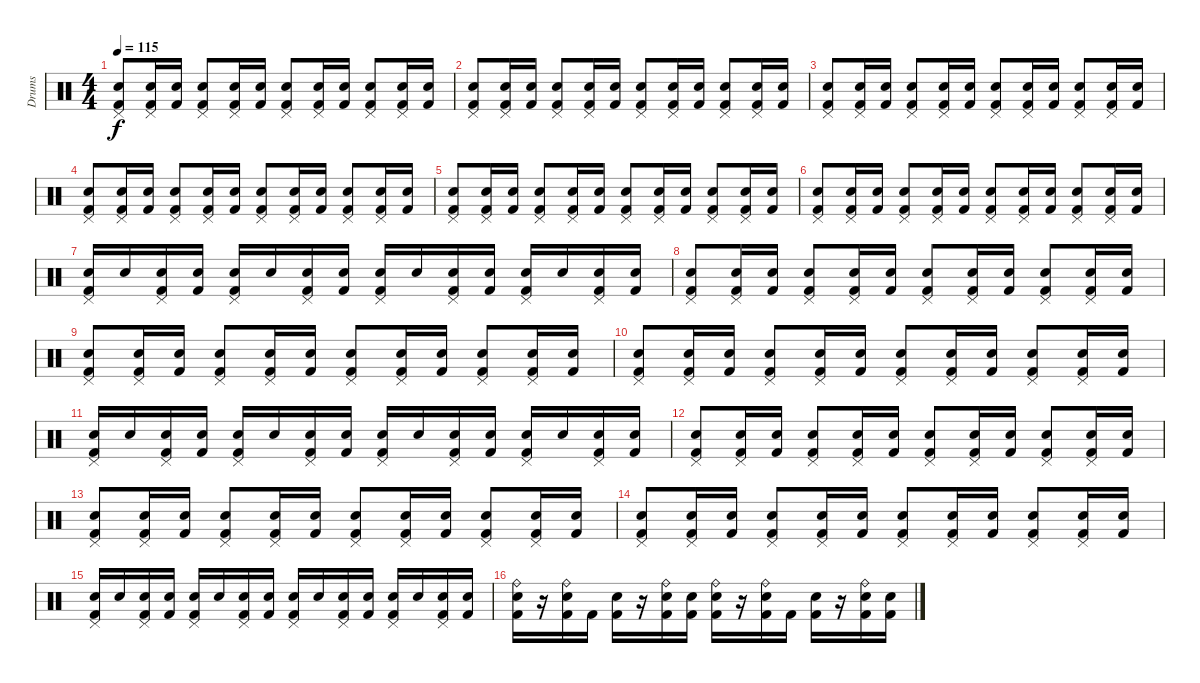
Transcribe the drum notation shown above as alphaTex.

\track ("Drums" "Drums") {instrument percussion}
\staff {score}
\articulation defaults
\ts (4 4)
\tempo 115
\clef neutral
\ks c
("Pedal Hi-Hat (hit)" "Kick (hit) 2" "Snare (hit) 2").8{dy f} ("Pedal Hi-Hat (hit)" "Kick (hit) 2" "Snare (hit) 2").16 ("Kick (hit) 2" "Snare (hit) 2").16 ("Pedal Hi-Hat (hit)" "Electric Snare (hit)" "Kick (hit) 2").8 ("Pedal Hi-Hat (hit)" "Kick (hit) 2" "Snare (hit) 2").16 ("Kick (hit) 2" "Snare (hit) 2").16 ("Pedal Hi-Hat (hit)" "Kick (hit) 2" "Snare (hit) 2").8 ("Pedal Hi-Hat (hit)" "Kick (hit) 2" "Snare (hit) 2").16 ("Kick (hit) 2" "Snare (hit) 2").16 ("Pedal Hi-Hat (hit)" "Electric Snare (hit)" "Kick (hit) 2").8 ("Pedal Hi-Hat (hit)" "Kick (hit) 2" "Snare (hit) 2").16 ("Kick (hit) 2" "Snare (hit) 2").16 |
("Pedal Hi-Hat (hit)" "Kick (hit) 2" "Snare (hit) 2").8 ("Pedal Hi-Hat (hit)" "Kick (hit) 2" "Snare (hit) 2").16 ("Kick (hit) 2" "Snare (hit) 2").16 ("Pedal Hi-Hat (hit)" "Electric Snare (hit)" "Kick (hit) 2").8 ("Pedal Hi-Hat (hit)" "Kick (hit) 2" "Snare (hit) 2").16 ("Kick (hit) 2" "Snare (hit) 2").16 ("Pedal Hi-Hat (hit)" "Kick (hit) 2" "Snare (hit) 2").8 ("Pedal Hi-Hat (hit)" "Kick (hit) 2" "Snare (hit) 2").16 ("Kick (hit) 2" "Snare (hit) 2").16 ("Pedal Hi-Hat (hit)" "Electric Snare (hit)" "Kick (hit) 2").8 ("Pedal Hi-Hat (hit)" "Kick (hit) 2" "Snare (hit) 2").16 ("Kick (hit) 2" "Snare (hit) 2").16 |
("Pedal Hi-Hat (hit)" "Kick (hit) 2" "Snare (hit) 2").8 ("Pedal Hi-Hat (hit)" "Kick (hit) 2" "Snare (hit) 2").16 ("Kick (hit) 2" "Snare (hit) 2").16 ("Pedal Hi-Hat (hit)" "Electric Snare (hit)" "Kick (hit) 2").8 ("Pedal Hi-Hat (hit)" "Kick (hit) 2" "Snare (hit) 2").16 ("Kick (hit) 2" "Snare (hit) 2").16 ("Pedal Hi-Hat (hit)" "Kick (hit) 2" "Snare (hit) 2").8 ("Pedal Hi-Hat (hit)" "Kick (hit) 2" "Snare (hit) 2").16 ("Kick (hit) 2" "Snare (hit) 2").16 ("Pedal Hi-Hat (hit)" "Electric Snare (hit)" "Kick (hit) 2").8 ("Pedal Hi-Hat (hit)" "Kick (hit) 2" "Snare (hit) 2").16 ("Kick (hit) 2" "Snare (hit) 2").16 |
("Pedal Hi-Hat (hit)" "Kick (hit) 2" "Snare (hit) 2").8 ("Pedal Hi-Hat (hit)" "Kick (hit) 2" "Snare (hit) 2").16 ("Kick (hit) 2" "Snare (hit) 2").16 ("Pedal Hi-Hat (hit)" "Electric Snare (hit)" "Kick (hit) 2").8 ("Pedal Hi-Hat (hit)" "Kick (hit) 2" "Snare (hit) 2").16 ("Kick (hit) 2" "Snare (hit) 2").16 ("Pedal Hi-Hat (hit)" "Kick (hit) 2" "Snare (hit) 2").8 ("Pedal Hi-Hat (hit)" "Kick (hit) 2" "Snare (hit) 2").16 ("Kick (hit) 2" "Snare (hit) 2").16 ("Pedal Hi-Hat (hit)" "Electric Snare (hit)" "Kick (hit) 2").8 ("Pedal Hi-Hat (hit)" "Kick (hit) 2" "Snare (hit) 2").16 ("Kick (hit) 2" "Snare (hit) 2").16 |
("Pedal Hi-Hat (hit)" "Kick (hit) 2" "Snare (hit) 2").8 ("Pedal Hi-Hat (hit)" "Kick (hit) 2" "Snare (hit) 2").16 ("Kick (hit) 2" "Snare (hit) 2").16 ("Pedal Hi-Hat (hit)" "Electric Snare (hit)" "Kick (hit) 2").8 ("Pedal Hi-Hat (hit)" "Kick (hit) 2" "Snare (hit) 2").16 ("Kick (hit) 2" "Snare (hit) 2").16 ("Pedal Hi-Hat (hit)" "Kick (hit) 2" "Snare (hit) 2").8 ("Pedal Hi-Hat (hit)" "Kick (hit) 2" "Snare (hit) 2").16 ("Kick (hit) 2" "Snare (hit) 2").16 ("Pedal Hi-Hat (hit)" "Electric Snare (hit)" "Kick (hit) 2").8 ("Pedal Hi-Hat (hit)" "Kick (hit) 2" "Snare (hit) 2").16 ("Kick (hit) 2" "Snare (hit) 2").16 |
("Pedal Hi-Hat (hit)" "Kick (hit) 2" "Snare (hit) 2").8 ("Pedal Hi-Hat (hit)" "Kick (hit) 2" "Snare (hit) 2").16 ("Kick (hit) 2" "Snare (hit) 2").16 ("Pedal Hi-Hat (hit)" "Electric Snare (hit)" "Kick (hit) 2").8 ("Pedal Hi-Hat (hit)" "Kick (hit) 2" "Snare (hit) 2").16 ("Kick (hit) 2" "Snare (hit) 2").16 ("Pedal Hi-Hat (hit)" "Kick (hit) 2" "Snare (hit) 2").8 ("Pedal Hi-Hat (hit)" "Kick (hit) 2" "Snare (hit) 2").16 ("Kick (hit) 2" "Snare (hit) 2").16 ("Pedal Hi-Hat (hit)" "Electric Snare (hit)" "Kick (hit) 2").8 ("Pedal Hi-Hat (hit)" "Kick (hit) 2" "Snare (hit) 2").16 ("Kick (hit) 2" "Snare (hit) 2").16 |
("Pedal Hi-Hat (hit)" "Kick (hit) 2" "Snare (hit) 2").16 "Snare (hit) 2".16 ("Pedal Hi-Hat (hit)" "Kick (hit) 2" "Snare (hit) 2").16 ("Kick (hit) 2" "Snare (hit) 2").16 ("Pedal Hi-Hat (hit)" "Kick (hit) 2" "Snare (hit) 2").16 "Snare (hit) 2".16 ("Pedal Hi-Hat (hit)" "Kick (hit) 2" "Snare (hit) 2").16 ("Kick (hit) 2" "Snare (hit) 2").16 ("Pedal Hi-Hat (hit)" "Kick (hit) 2" "Electric Snare (hit)").16 "Electric Snare (hit)".16 ("Pedal Hi-Hat (hit)" "Kick (hit) 2" "Electric Snare (hit)").16 ("Kick (hit) 2" "Electric Snare (hit)").16 ("Pedal Hi-Hat (hit)" "Kick (hit) 2" "Electric Snare (hit)").16 "Electric Snare (hit)".16 ("Pedal Hi-Hat (hit)" "Kick (hit) 2" "Electric Snare (hit)").16 ("Kick (hit) 2" "Electric Snare (hit)").16 |
("Pedal Hi-Hat (hit)" "Kick (hit) 2" "Snare (hit) 2").8 ("Pedal Hi-Hat (hit)" "Kick (hit) 2" "Snare (hit) 2").16 ("Kick (hit) 2" "Snare (hit) 2").16 ("Pedal Hi-Hat (hit)" "Electric Snare (hit)" "Kick (hit) 2").8 ("Pedal Hi-Hat (hit)" "Kick (hit) 2" "Snare (hit) 2").16 ("Kick (hit) 2" "Snare (hit) 2").16 ("Pedal Hi-Hat (hit)" "Kick (hit) 2" "Snare (hit) 2").8 ("Pedal Hi-Hat (hit)" "Kick (hit) 2" "Snare (hit) 2").16 ("Kick (hit) 2" "Snare (hit) 2").16 ("Pedal Hi-Hat (hit)" "Electric Snare (hit)" "Kick (hit) 2").8 ("Pedal Hi-Hat (hit)" "Kick (hit) 2" "Snare (hit) 2").16 ("Kick (hit) 2" "Snare (hit) 2").16 |
("Pedal Hi-Hat (hit)" "Kick (hit) 2" "Snare (hit) 2").8 ("Pedal Hi-Hat (hit)" "Kick (hit) 2" "Snare (hit) 2").16 ("Kick (hit) 2" "Snare (hit) 2").16 ("Pedal Hi-Hat (hit)" "Electric Snare (hit)" "Kick (hit) 2").8 ("Pedal Hi-Hat (hit)" "Kick (hit) 2" "Snare (hit) 2").16 ("Kick (hit) 2" "Snare (hit) 2").16 ("Pedal Hi-Hat (hit)" "Kick (hit) 2" "Snare (hit) 2").8 ("Pedal Hi-Hat (hit)" "Kick (hit) 2" "Snare (hit) 2").16 ("Kick (hit) 2" "Snare (hit) 2").16 ("Pedal Hi-Hat (hit)" "Electric Snare (hit)" "Kick (hit) 2").8 ("Pedal Hi-Hat (hit)" "Kick (hit) 2" "Snare (hit) 2").16 ("Kick (hit) 2" "Snare (hit) 2").16 |
("Pedal Hi-Hat (hit)" "Kick (hit) 2" "Snare (hit) 2").8 ("Pedal Hi-Hat (hit)" "Kick (hit) 2" "Snare (hit) 2").16 ("Kick (hit) 2" "Snare (hit) 2").16 ("Pedal Hi-Hat (hit)" "Electric Snare (hit)" "Kick (hit) 2").8 ("Pedal Hi-Hat (hit)" "Kick (hit) 2" "Snare (hit) 2").16 ("Kick (hit) 2" "Snare (hit) 2").16 ("Pedal Hi-Hat (hit)" "Kick (hit) 2" "Snare (hit) 2").8 ("Pedal Hi-Hat (hit)" "Kick (hit) 2" "Snare (hit) 2").16 ("Kick (hit) 2" "Snare (hit) 2").16 ("Pedal Hi-Hat (hit)" "Electric Snare (hit)" "Kick (hit) 2").8 ("Pedal Hi-Hat (hit)" "Kick (hit) 2" "Snare (hit) 2").16 ("Kick (hit) 2" "Snare (hit) 2").16 |
("Pedal Hi-Hat (hit)" "Kick (hit) 2" "Snare (hit) 2").16 "Snare (hit) 2".16 ("Pedal Hi-Hat (hit)" "Kick (hit) 2" "Snare (hit) 2").16 ("Kick (hit) 2" "Snare (hit) 2").16 ("Pedal Hi-Hat (hit)" "Kick (hit) 2" "Snare (hit) 2").16 "Snare (hit) 2".16 ("Pedal Hi-Hat (hit)" "Kick (hit) 2" "Snare (hit) 2").16 ("Kick (hit) 2" "Snare (hit) 2").16 ("Pedal Hi-Hat (hit)" "Kick (hit) 2" "Electric Snare (hit)").16 "Electric Snare (hit)".16 ("Pedal Hi-Hat (hit)" "Kick (hit) 2" "Electric Snare (hit)").16 ("Kick (hit) 2" "Electric Snare (hit)").16 ("Pedal Hi-Hat (hit)" "Kick (hit) 2" "Electric Snare (hit)").16 "Electric Snare (hit)".16 ("Pedal Hi-Hat (hit)" "Kick (hit) 2" "Electric Snare (hit)").16 ("Kick (hit) 2" "Electric Snare (hit)").16 |
("Pedal Hi-Hat (hit)" "Kick (hit) 2" "Snare (hit) 2").8 ("Pedal Hi-Hat (hit)" "Kick (hit) 2" "Snare (hit) 2").16 ("Kick (hit) 2" "Snare (hit) 2").16 ("Pedal Hi-Hat (hit)" "Electric Snare (hit)" "Kick (hit) 2").8 ("Pedal Hi-Hat (hit)" "Kick (hit) 2" "Snare (hit) 2").16 ("Kick (hit) 2" "Snare (hit) 2").16 ("Pedal Hi-Hat (hit)" "Kick (hit) 2" "Snare (hit) 2").8 ("Pedal Hi-Hat (hit)" "Kick (hit) 2" "Snare (hit) 2").16 ("Kick (hit) 2" "Snare (hit) 2").16 ("Pedal Hi-Hat (hit)" "Electric Snare (hit)" "Kick (hit) 2").8 ("Pedal Hi-Hat (hit)" "Kick (hit) 2" "Snare (hit) 2").16 ("Kick (hit) 2" "Snare (hit) 2").16 |
("Pedal Hi-Hat (hit)" "Kick (hit) 2" "Snare (hit) 2").8 ("Pedal Hi-Hat (hit)" "Kick (hit) 2" "Snare (hit) 2").16 ("Kick (hit) 2" "Snare (hit) 2").16 ("Pedal Hi-Hat (hit)" "Electric Snare (hit)" "Kick (hit) 2").8 ("Pedal Hi-Hat (hit)" "Kick (hit) 2" "Snare (hit) 2").16 ("Kick (hit) 2" "Snare (hit) 2").16 ("Pedal Hi-Hat (hit)" "Kick (hit) 2" "Snare (hit) 2").8 ("Pedal Hi-Hat (hit)" "Kick (hit) 2" "Snare (hit) 2").16 ("Kick (hit) 2" "Snare (hit) 2").16 ("Pedal Hi-Hat (hit)" "Electric Snare (hit)" "Kick (hit) 2").8 ("Pedal Hi-Hat (hit)" "Kick (hit) 2" "Snare (hit) 2").16 ("Kick (hit) 2" "Snare (hit) 2").16 |
("Pedal Hi-Hat (hit)" "Kick (hit) 2" "Snare (hit) 2").8 ("Pedal Hi-Hat (hit)" "Kick (hit) 2" "Snare (hit) 2").16 ("Kick (hit) 2" "Snare (hit) 2").16 ("Pedal Hi-Hat (hit)" "Electric Snare (hit)" "Kick (hit) 2").8 ("Pedal Hi-Hat (hit)" "Kick (hit) 2" "Snare (hit) 2").16 ("Kick (hit) 2" "Snare (hit) 2").16 ("Pedal Hi-Hat (hit)" "Kick (hit) 2" "Snare (hit) 2").8 ("Pedal Hi-Hat (hit)" "Kick (hit) 2" "Snare (hit) 2").16 ("Kick (hit) 2" "Snare (hit) 2").16 ("Pedal Hi-Hat (hit)" "Electric Snare (hit)" "Kick (hit) 2").8 ("Pedal Hi-Hat (hit)" "Kick (hit) 2" "Snare (hit) 2").16 ("Kick (hit) 2" "Snare (hit) 2").16 |
("Pedal Hi-Hat (hit)" "Kick (hit) 2" "Snare (hit) 2").16 "Snare (hit) 2".16 ("Pedal Hi-Hat (hit)" "Kick (hit) 2" "Snare (hit) 2").16 ("Kick (hit) 2" "Snare (hit) 2").16 ("Pedal Hi-Hat (hit)" "Kick (hit) 2" "Snare (hit) 2").16 "Snare (hit) 2".16 ("Pedal Hi-Hat (hit)" "Kick (hit) 2" "Snare (hit) 2").16 ("Kick (hit) 2" "Snare (hit) 2").16 ("Pedal Hi-Hat (hit)" "Kick (hit) 2" "Electric Snare (hit)").16 "Electric Snare (hit)".16 ("Pedal Hi-Hat (hit)" "Kick (hit) 2" "Electric Snare (hit)").16 ("Kick (hit) 2" "Electric Snare (hit)").16 ("Pedal Hi-Hat (hit)" "Kick (hit) 2" "Electric Snare (hit)").16 "Electric Snare (hit)".16 ("Pedal Hi-Hat (hit)" "Kick (hit) 2" "Electric Snare (hit)").16 ("Kick (hit) 2" "Electric Snare (hit)").16 |
("Ride (bell)" "Snare (hit) 2" "Kick (hit) 2").16 r.16 ("Ride (bell)" "Snare (hit) 2" "Kick (hit) 2").16 "Kick (hit) 2".16 ("Electric Snare (hit)" "Kick (hit) 2").16 r.16 ("Ride (bell)" "Snare (hit) 2" "Kick (hit) 2").16 ("Snare (hit) 2" "Kick (hit) 2").16 ("Ride (bell)" "Snare (hit) 2" "Kick (hit) 2").16 r.16 ("Ride (bell)" "Snare (hit) 2" "Kick (hit) 2").16 "Kick (hit) 2".16 ("Electric Snare (hit)" "Kick (hit) 2").16 r.16 ("Ride (bell)" "Snare (hit) 2" "Kick (hit) 2").16 ("Snare (hit) 2" "Kick (hit) 2").16
